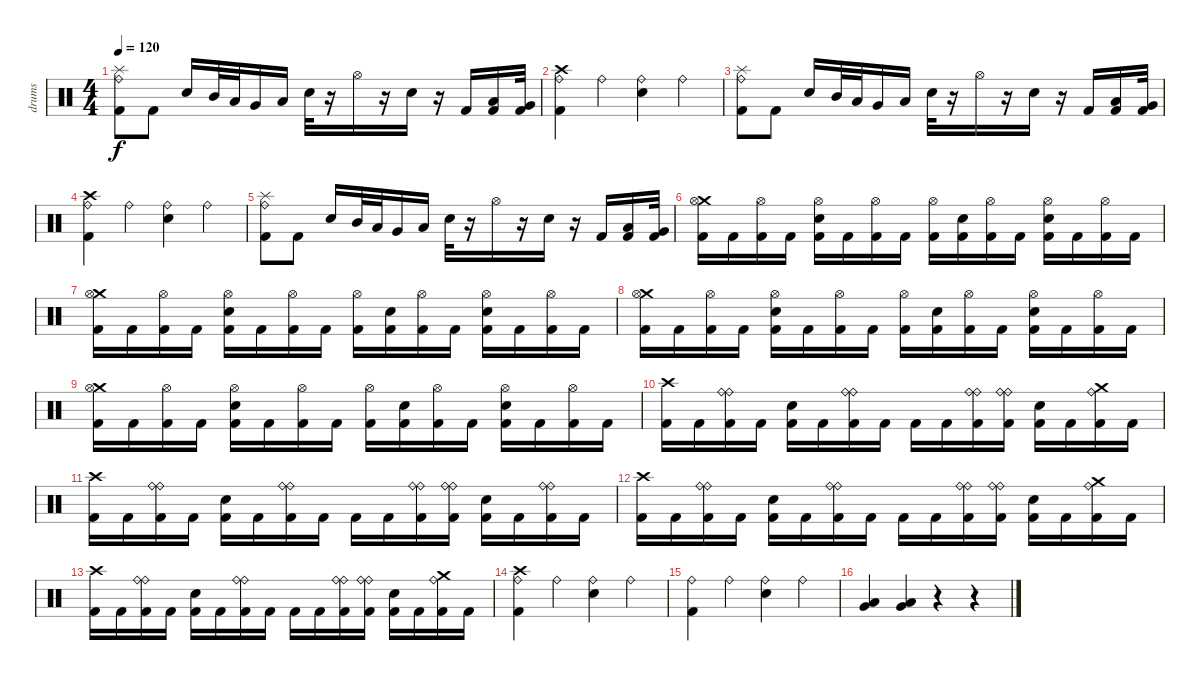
\track ("drums" "drums") {instrument percussion}
\staff {score}
\articulation defaults
\ts (4 4)
\tempo 120
\clef neutral
\ks c
("Splash (hit)" "Ride (bell)" "Kick (hit) 2").8{dy f} "Kick (hit) 2".8 "Electric Snare (hit)".16 "Mid Tom (hit)".32 "Low Tom (hit)".32 "Very Low Tom (hit)".16 "Low Floor Tom (hit)".16 "Electric Snare (hit)".32 r.16 "Hi-Hat (open)".16 r.16 "Electric Snare (hit)".16 r.16 "Kick (hit) 2".16 ("Low Tom (hit)" "Kick (hit) 2").16 ("Very Low Tom (hit)" "Kick (hit) 2").32 |
("Crash high (hit)" "Ride (bell)" "Kick (hit) 2").4 "Ride (bell)".4 ("Ride (bell)" "Electric Snare (hit)").4 "Ride (bell)".4 |
("Splash (hit)" "Ride (bell)" "Kick (hit) 2").8 "Kick (hit) 2".8 "Electric Snare (hit)".16 "Mid Tom (hit)".32 "Low Tom (hit)".32 "Very Low Tom (hit)".16 "Low Floor Tom (hit)".16 "Electric Snare (hit)".32 r.16 "Hi-Hat (open)".16 r.16 "Electric Snare (hit)".16 r.16 "Kick (hit) 2".16 ("Low Tom (hit)" "Kick (hit) 2").16 ("Very Low Tom (hit)" "Kick (hit) 2").32 |
("Crash high (hit)" "Ride (bell)" "Kick (hit) 2").4 "Ride (bell)".4 ("Ride (bell)" "Electric Snare (hit)").4 "Ride (bell)".4 |
("Splash (hit)" "Ride (bell)" "Kick (hit) 2").8 "Kick (hit) 2".8 "Electric Snare (hit)".16 "Mid Tom (hit)".32 "Low Tom (hit)".32 "Very Low Tom (hit)".16 "Low Floor Tom (hit)".16 "Electric Snare (hit)".32 r.16 "Hi-Hat (open)".16 r.16 "Electric Snare (hit)".16 r.16 "Kick (hit) 2".16 ("Low Tom (hit)" "Kick (hit) 2").16 ("Very Low Tom (hit)" "Kick (hit) 2").32 |
("Crash medium (hit)" "Hi-Hat (open)" "Kick (hit) 2").16 "Kick (hit) 2".16 ("Hi-Hat (open)" "Kick (hit) 2").16 "Kick (hit) 2".16 ("Hi-Hat (open)" "Kick (hit) 2" "Electric Snare (hit)").16 "Kick (hit) 2".16 ("Hi-Hat (open)" "Kick (hit) 2").16 "Kick (hit) 2".16 ("Hi-Hat (open)" "Kick (hit) 2").16 ("Kick (hit) 2" "Electric Snare (hit)").16 ("Hi-Hat (open)" "Kick (hit) 2").16 "Kick (hit) 2".16 ("Hi-Hat (open)" "Kick (hit) 2" "Electric Snare (hit)").16 "Kick (hit) 2".16 ("Hi-Hat (open)" "Kick (hit) 2").16 "Kick (hit) 2".16 |
("Crash medium (hit)" "Hi-Hat (open)" "Kick (hit) 2").16 "Kick (hit) 2".16 ("Hi-Hat (open)" "Kick (hit) 2").16 "Kick (hit) 2".16 ("Hi-Hat (open)" "Kick (hit) 2" "Electric Snare (hit)").16 "Kick (hit) 2".16 ("Hi-Hat (open)" "Kick (hit) 2").16 "Kick (hit) 2".16 ("Hi-Hat (open)" "Kick (hit) 2").16 ("Kick (hit) 2" "Electric Snare (hit)").16 ("Hi-Hat (open)" "Kick (hit) 2").16 "Kick (hit) 2".16 ("Hi-Hat (open)" "Kick (hit) 2" "Electric Snare (hit)").16 "Kick (hit) 2".16 ("Hi-Hat (open)" "Kick (hit) 2").16 "Kick (hit) 2".16 |
("Crash medium (hit)" "Hi-Hat (open)" "Kick (hit) 2").16 "Kick (hit) 2".16 ("Hi-Hat (open)" "Kick (hit) 2").16 "Kick (hit) 2".16 ("Hi-Hat (open)" "Kick (hit) 2" "Electric Snare (hit)").16 "Kick (hit) 2".16 ("Hi-Hat (open)" "Kick (hit) 2").16 "Kick (hit) 2".16 ("Hi-Hat (open)" "Kick (hit) 2").16 ("Kick (hit) 2" "Electric Snare (hit)").16 ("Hi-Hat (open)" "Kick (hit) 2").16 "Kick (hit) 2".16 ("Hi-Hat (open)" "Kick (hit) 2" "Electric Snare (hit)").16 "Kick (hit) 2".16 ("Hi-Hat (open)" "Kick (hit) 2").16 "Kick (hit) 2".16 |
("Crash medium (hit)" "Hi-Hat (open)" "Kick (hit) 2").16 "Kick (hit) 2".16 ("Hi-Hat (open)" "Kick (hit) 2").16 "Kick (hit) 2".16 ("Hi-Hat (open)" "Kick (hit) 2" "Electric Snare (hit)").16 "Kick (hit) 2".16 ("Hi-Hat (open)" "Kick (hit) 2").16 "Kick (hit) 2".16 ("Hi-Hat (open)" "Kick (hit) 2").16 ("Kick (hit) 2" "Electric Snare (hit)").16 ("Hi-Hat (open)" "Kick (hit) 2").16 "Kick (hit) 2".16 ("Hi-Hat (open)" "Kick (hit) 2" "Electric Snare (hit)").16 "Kick (hit) 2".16 ("Hi-Hat (open)" "Kick (hit) 2").16 "Kick (hit) 2".16 |
("Crash high (hit)" "Kick (hit) 2").16 "Kick (hit) 2".16 ("Ride (bell)" "Ride (bell)" "Kick (hit) 2").16 "Kick (hit) 2".16 ("Kick (hit) 2" "Electric Snare (hit)").16 "Kick (hit) 2".16 ("Ride (bell)" "Ride (bell)" "Kick (hit) 2").16 "Kick (hit) 2".16 "Kick (hit) 2".16 "Kick (hit) 2".16 ("Ride (bell)" "Ride (bell)" "Kick (hit) 2").16 ("Ride (bell)" "Ride (bell)" "Kick (hit) 2").16 ("Kick (hit) 2" "Electric Snare (hit)").16 "Kick (hit) 2".16 ("Crash medium (hit)" "Ride (bell)" "Kick (hit) 2").16 "Kick (hit) 2".16 |
("Crash high (hit)" "Kick (hit) 2").16 "Kick (hit) 2".16 ("Ride (bell)" "Ride (bell)" "Kick (hit) 2").16 "Kick (hit) 2".16 ("Kick (hit) 2" "Electric Snare (hit)").16 "Kick (hit) 2".16 ("Ride (bell)" "Ride (bell)" "Kick (hit) 2").16 "Kick (hit) 2".16 "Kick (hit) 2".16 "Kick (hit) 2".16 ("Ride (bell)" "Ride (bell)" "Kick (hit) 2").16 ("Ride (bell)" "Ride (bell)" "Kick (hit) 2").16 ("Kick (hit) 2" "Electric Snare (hit)").16 "Kick (hit) 2".16 ("Ride (bell)" "Ride (bell)" "Kick (hit) 2").16 "Kick (hit) 2".16 |
("Crash high (hit)" "Kick (hit) 2").16 "Kick (hit) 2".16 ("Ride (bell)" "Ride (bell)" "Kick (hit) 2").16 "Kick (hit) 2".16 ("Kick (hit) 2" "Electric Snare (hit)").16 "Kick (hit) 2".16 ("Ride (bell)" "Ride (bell)" "Kick (hit) 2").16 "Kick (hit) 2".16 "Kick (hit) 2".16 "Kick (hit) 2".16 ("Ride (bell)" "Ride (bell)" "Kick (hit) 2").16 ("Ride (bell)" "Ride (bell)" "Kick (hit) 2").16 ("Kick (hit) 2" "Electric Snare (hit)").16 "Kick (hit) 2".16 ("Crash medium (hit)" "Ride (bell)" "Kick (hit) 2").16 "Kick (hit) 2".16 |
("Crash high (hit)" "Kick (hit) 2").16 "Kick (hit) 2".16 ("Ride (bell)" "Ride (bell)" "Kick (hit) 2").16 "Kick (hit) 2".16 ("Kick (hit) 2" "Electric Snare (hit)").16 "Kick (hit) 2".16 ("Ride (bell)" "Ride (bell)" "Kick (hit) 2").16 "Kick (hit) 2".16 "Kick (hit) 2".16 "Kick (hit) 2".16 ("Ride (bell)" "Ride (bell)" "Kick (hit) 2").16 ("Ride (bell)" "Ride (bell)" "Kick (hit) 2").16 ("Kick (hit) 2" "Electric Snare (hit)").16 "Kick (hit) 2".16 ("Crash medium (hit)" "Ride (bell)" "Kick (hit) 2").16 "Kick (hit) 2".16 |
("Crash high (hit)" "Ride (bell)" "Kick (hit) 2").4 "Ride (bell)".4 ("Ride (bell)" "Electric Snare (hit)").4 "Ride (bell)".4 |
("Ride (bell)" "Kick (hit) 2").4 "Ride (bell)".4 ("Ride (bell)" "Electric Snare (hit)").4 "Ride (bell)".4 |
("Very Low Tom (hit)" "Low Tom (hit)").4 ("Very Low Tom (hit)" "Low Tom (hit)").4 r.4 r.4
